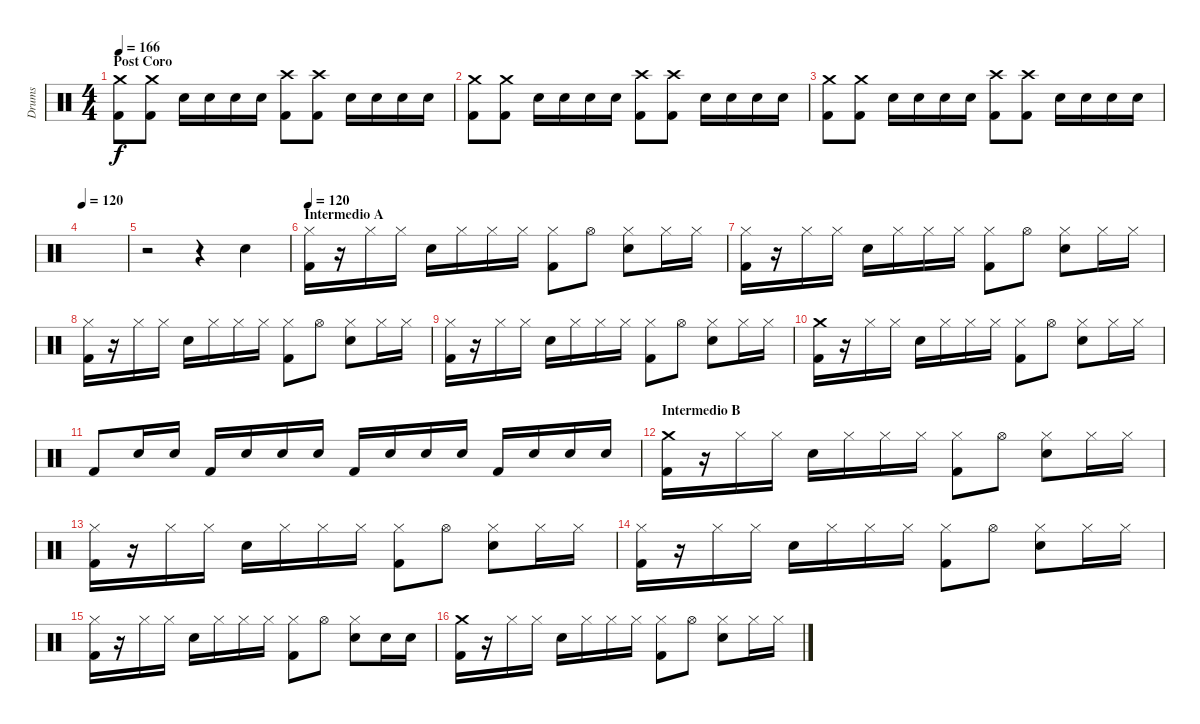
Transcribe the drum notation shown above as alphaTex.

\track ("Drums" "Drums") {instrument percussion}
\staff {score}
\articulation defaults
\ts (4 4)
\section ("" "Post Coro")
\tempo 166
\clef neutral
\ks c
("Crash medium (hit)" "Kick (hit) 2").8{dy f} ("Crash medium (hit)" "Kick (hit) 2").8 "Electric Snare (hit)".16 "Electric Snare (hit)".16 "Electric Snare (hit)".16 "Electric Snare (hit)".16 ("Crash high (hit)" "Kick (hit) 2").8 ("Crash high (hit)" "Kick (hit) 2").8 "Electric Snare (hit)".16 "Electric Snare (hit)".16 "Electric Snare (hit)".16 "Electric Snare (hit)".16 |
("Crash medium (hit)" "Kick (hit) 2").8 ("Crash medium (hit)" "Kick (hit) 2").8 "Electric Snare (hit)".16 "Electric Snare (hit)".16 "Electric Snare (hit)".16 "Electric Snare (hit)".16 ("Crash high (hit)" "Kick (hit) 2").8 ("Crash high (hit)" "Kick (hit) 2").8 "Electric Snare (hit)".16 "Electric Snare (hit)".16 "Electric Snare (hit)".16 "Electric Snare (hit)".16 |
("Crash medium (hit)" "Kick (hit) 2").8 ("Crash medium (hit)" "Kick (hit) 2").8 "Electric Snare (hit)".16 "Electric Snare (hit)".16 "Electric Snare (hit)".16 "Electric Snare (hit)".16 ("Crash high (hit)" "Kick (hit) 2").8 ("Crash high (hit)" "Kick (hit) 2").8 "Electric Snare (hit)".16 "Electric Snare (hit)".16 "Electric Snare (hit)".16 "Electric Snare (hit)".16 |
\tempo 120
|
r.2 r.4 "Electric Snare (hit)".4 |
\section ("" "Intermedio A")
\tempo 120
("Hi-Hat (closed)" "Kick (hit) 2").16 r.16 "Hi-Hat (closed)".16 "Hi-Hat (closed)".16 "Electric Snare (hit)".16 "Hi-Hat (closed)".16 "Hi-Hat (closed)".16 "Hi-Hat (closed)".16 ("Hi-Hat (closed)" "Kick (hit) 2").8 "Hi-Hat (open)".8 ("Hi-Hat (closed)" "Electric Snare (hit)").8 "Hi-Hat (closed)".16 "Hi-Hat (closed)".16 |
("Hi-Hat (closed)" "Kick (hit) 2").16 r.16 "Hi-Hat (closed)".16 "Hi-Hat (closed)".16 "Electric Snare (hit)".16 "Hi-Hat (closed)".16 "Hi-Hat (closed)".16 "Hi-Hat (closed)".16 ("Hi-Hat (closed)" "Kick (hit) 2").8 "Hi-Hat (open)".8 ("Hi-Hat (closed)" "Electric Snare (hit)").8 "Hi-Hat (closed)".16 "Hi-Hat (closed)".16 |
("Hi-Hat (closed)" "Kick (hit) 2").16 r.16 "Hi-Hat (closed)".16 "Hi-Hat (closed)".16 "Electric Snare (hit)".16 "Hi-Hat (closed)".16 "Hi-Hat (closed)".16 "Hi-Hat (closed)".16 ("Hi-Hat (closed)" "Kick (hit) 2").8 "Hi-Hat (open)".8 ("Hi-Hat (closed)" "Electric Snare (hit)").8 "Hi-Hat (closed)".16 "Hi-Hat (closed)".16 |
("Hi-Hat (closed)" "Kick (hit) 2").16 r.16 "Hi-Hat (closed)".16 "Hi-Hat (closed)".16 "Electric Snare (hit)".16 "Hi-Hat (closed)".16 "Hi-Hat (closed)".16 "Hi-Hat (closed)".16 ("Hi-Hat (closed)" "Kick (hit) 2").8 "Hi-Hat (open)".8 ("Hi-Hat (closed)" "Electric Snare (hit)").8 "Hi-Hat (closed)".16 "Hi-Hat (closed)".16 |
("Crash medium (hit)" "Kick (hit) 2").16 r.16 "Hi-Hat (closed)".16 "Hi-Hat (closed)".16 "Electric Snare (hit)".16 "Hi-Hat (closed)".16 "Hi-Hat (closed)".16 "Hi-Hat (closed)".16 ("Hi-Hat (closed)" "Kick (hit) 2").8 "Hi-Hat (open)".8 ("Hi-Hat (closed)" "Electric Snare (hit)").8 "Hi-Hat (closed)".16 "Hi-Hat (closed)".16 |
"Kick (hit) 2".8 "Electric Snare (hit)".16 "Electric Snare (hit)".16 "Kick (hit) 2".16 "Electric Snare (hit)".16 "Electric Snare (hit)".16 "Electric Snare (hit)".16 "Kick (hit) 2".16 "Electric Snare (hit)".16 "Electric Snare (hit)".16 "Electric Snare (hit)".16 "Kick (hit) 2".16 "Electric Snare (hit)".16 "Electric Snare (hit)".16 "Electric Snare (hit)".16 |
\section ("" "Intermedio B")
("Crash medium (hit)" "Kick (hit) 2").16 r.16 "Hi-Hat (closed)".16 "Hi-Hat (closed)".16 "Electric Snare (hit)".16 "Hi-Hat (closed)".16 "Hi-Hat (closed)".16 "Hi-Hat (closed)".16 ("Hi-Hat (closed)" "Kick (hit) 2").8 "Hi-Hat (open)".8 ("Hi-Hat (closed)" "Electric Snare (hit)").8 "Hi-Hat (closed)".16 "Hi-Hat (closed)".16 |
("Hi-Hat (closed)" "Kick (hit) 2").16 r.16 "Hi-Hat (closed)".16 "Hi-Hat (closed)".16 "Electric Snare (hit)".16 "Hi-Hat (closed)".16 "Hi-Hat (closed)".16 "Hi-Hat (closed)".16 ("Hi-Hat (closed)" "Kick (hit) 2").8 "Hi-Hat (open)".8 ("Hi-Hat (closed)" "Electric Snare (hit)").8 "Hi-Hat (closed)".16 "Hi-Hat (closed)".16 |
("Hi-Hat (closed)" "Kick (hit) 2").16 r.16 "Hi-Hat (closed)".16 "Hi-Hat (closed)".16 "Electric Snare (hit)".16 "Hi-Hat (closed)".16 "Hi-Hat (closed)".16 "Hi-Hat (closed)".16 ("Hi-Hat (closed)" "Kick (hit) 2").8 "Hi-Hat (open)".8 ("Hi-Hat (closed)" "Electric Snare (hit)").8 "Hi-Hat (closed)".16 "Hi-Hat (closed)".16 |
("Hi-Hat (closed)" "Kick (hit) 2").16 r.16 "Hi-Hat (closed)".16 "Hi-Hat (closed)".16 "Electric Snare (hit)".16 "Hi-Hat (closed)".16 "Hi-Hat (closed)".16 "Hi-Hat (closed)".16 ("Hi-Hat (closed)" "Kick (hit) 2").8 "Hi-Hat (open)".8 ("Hi-Hat (closed)" "Electric Snare (hit)").8 "Electric Snare (hit)".16 "Electric Snare (hit)".16 |
("Crash medium (hit)" "Kick (hit) 2").16 r.16 "Hi-Hat (closed)".16 "Hi-Hat (closed)".16 "Electric Snare (hit)".16 "Hi-Hat (closed)".16 "Hi-Hat (closed)".16 "Hi-Hat (closed)".16 ("Hi-Hat (closed)" "Kick (hit) 2").8 "Hi-Hat (open)".8 ("Hi-Hat (closed)" "Electric Snare (hit)").8 "Hi-Hat (closed)".16 "Hi-Hat (closed)".16
